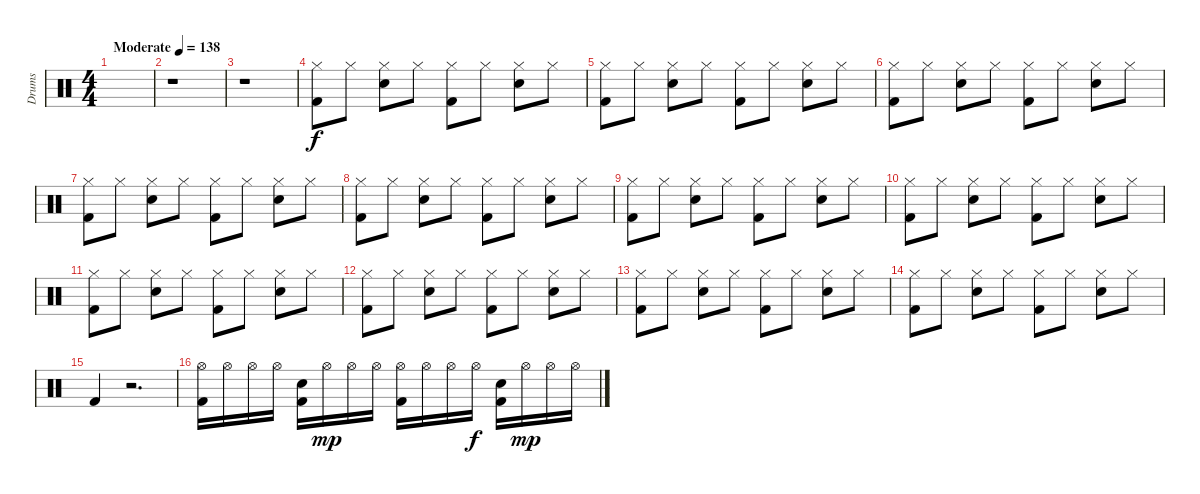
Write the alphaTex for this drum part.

\track ("Drums" "Drums") {instrument percussion}
\staff {score}
\articulation defaults
\ts (4 4)
\tempo (138 "Moderate")
\clef neutral
\ks c
|
r.1 |
r.1 |
("Hi-Hat (closed)" "Kick (hit) 2").8 "Hi-Hat (closed)".8 ("Hi-Hat (closed)" "Electric Snare (hit)").8 "Hi-Hat (closed)".8 ("Hi-Hat (closed)" "Kick (hit) 2").8 "Hi-Hat (closed)".8 ("Hi-Hat (closed)" "Electric Snare (hit)").8 "Hi-Hat (closed)".8 |
("Hi-Hat (closed)" "Kick (hit) 2").8 "Hi-Hat (closed)".8 ("Hi-Hat (closed)" "Electric Snare (hit)").8 "Hi-Hat (closed)".8 ("Hi-Hat (closed)" "Kick (hit) 2").8 "Hi-Hat (closed)".8 ("Hi-Hat (closed)" "Electric Snare (hit)").8 "Hi-Hat (closed)".8 |
("Hi-Hat (closed)" "Kick (hit) 2").8 "Hi-Hat (closed)".8 ("Hi-Hat (closed)" "Electric Snare (hit)").8 "Hi-Hat (closed)".8 ("Hi-Hat (closed)" "Kick (hit) 2").8 "Hi-Hat (closed)".8 ("Hi-Hat (closed)" "Electric Snare (hit)").8 "Hi-Hat (closed)".8 |
("Hi-Hat (closed)" "Kick (hit) 2").8 "Hi-Hat (closed)".8 ("Hi-Hat (closed)" "Electric Snare (hit)").8 "Hi-Hat (closed)".8 ("Hi-Hat (closed)" "Kick (hit) 2").8 "Hi-Hat (closed)".8 ("Hi-Hat (closed)" "Electric Snare (hit)").8 "Hi-Hat (closed)".8 |
("Hi-Hat (closed)" "Kick (hit) 2").8 "Hi-Hat (closed)".8 ("Hi-Hat (closed)" "Electric Snare (hit)").8 "Hi-Hat (closed)".8 ("Hi-Hat (closed)" "Kick (hit) 2").8 "Hi-Hat (closed)".8 ("Hi-Hat (closed)" "Electric Snare (hit)").8 "Hi-Hat (closed)".8 |
("Hi-Hat (closed)" "Kick (hit) 2").8 "Hi-Hat (closed)".8 ("Hi-Hat (closed)" "Electric Snare (hit)").8 "Hi-Hat (closed)".8 ("Hi-Hat (closed)" "Kick (hit) 2").8 "Hi-Hat (closed)".8 ("Hi-Hat (closed)" "Electric Snare (hit)").8 "Hi-Hat (closed)".8 |
("Hi-Hat (closed)" "Kick (hit) 2").8 "Hi-Hat (closed)".8 ("Hi-Hat (closed)" "Electric Snare (hit)").8 "Hi-Hat (closed)".8 ("Hi-Hat (closed)" "Kick (hit) 2").8 "Hi-Hat (closed)".8 ("Hi-Hat (closed)" "Electric Snare (hit)").8 "Hi-Hat (closed)".8 |
("Hi-Hat (closed)" "Kick (hit) 2").8 "Hi-Hat (closed)".8 ("Hi-Hat (closed)" "Electric Snare (hit)").8 "Hi-Hat (closed)".8 ("Hi-Hat (closed)" "Kick (hit) 2").8 "Hi-Hat (closed)".8 ("Hi-Hat (closed)" "Electric Snare (hit)").8 "Hi-Hat (closed)".8 |
("Hi-Hat (closed)" "Kick (hit) 2").8 "Hi-Hat (closed)".8 ("Hi-Hat (closed)" "Electric Snare (hit)").8 "Hi-Hat (closed)".8 ("Hi-Hat (closed)" "Kick (hit) 2").8 "Hi-Hat (closed)".8 ("Hi-Hat (closed)" "Electric Snare (hit)").8 "Hi-Hat (closed)".8 |
("Hi-Hat (closed)" "Kick (hit) 2").8 "Hi-Hat (closed)".8 ("Hi-Hat (closed)" "Electric Snare (hit)").8 "Hi-Hat (closed)".8 ("Hi-Hat (closed)" "Kick (hit) 2").8 "Hi-Hat (closed)".8 ("Hi-Hat (closed)" "Electric Snare (hit)").8 "Hi-Hat (closed)".8 |
("Hi-Hat (closed)" "Kick (hit) 2").8 "Hi-Hat (closed)".8 ("Hi-Hat (closed)" "Electric Snare (hit)").8 "Hi-Hat (closed)".8 ("Hi-Hat (closed)" "Kick (hit) 2").8 "Hi-Hat (closed)".8 ("Hi-Hat (closed)" "Electric Snare (hit)").8 "Hi-Hat (closed)".8 |
"Kick (hit) 2".4 r.2{d} |
("Hi-Hat (open)" "Kick (hit) 2").16 "Hi-Hat (open)".16 "Hi-Hat (open)".16 "Hi-Hat (open)".16{dy f} ("Electric Snare (hit)" "Kick (hit) 2").16 "Hi-Hat (open)".16{dy mp} "Hi-Hat (open)".16 "Hi-Hat (open)".16 ("Hi-Hat (open)" "Kick (hit) 2").16 "Hi-Hat (open)".16 "Hi-Hat (open)".16 "Hi-Hat (open)".16{dy f} ("Electric Snare (hit)" "Kick (hit) 2").16 "Hi-Hat (open)".16{dy mp} "Hi-Hat (open)".16 "Hi-Hat (open)".16
